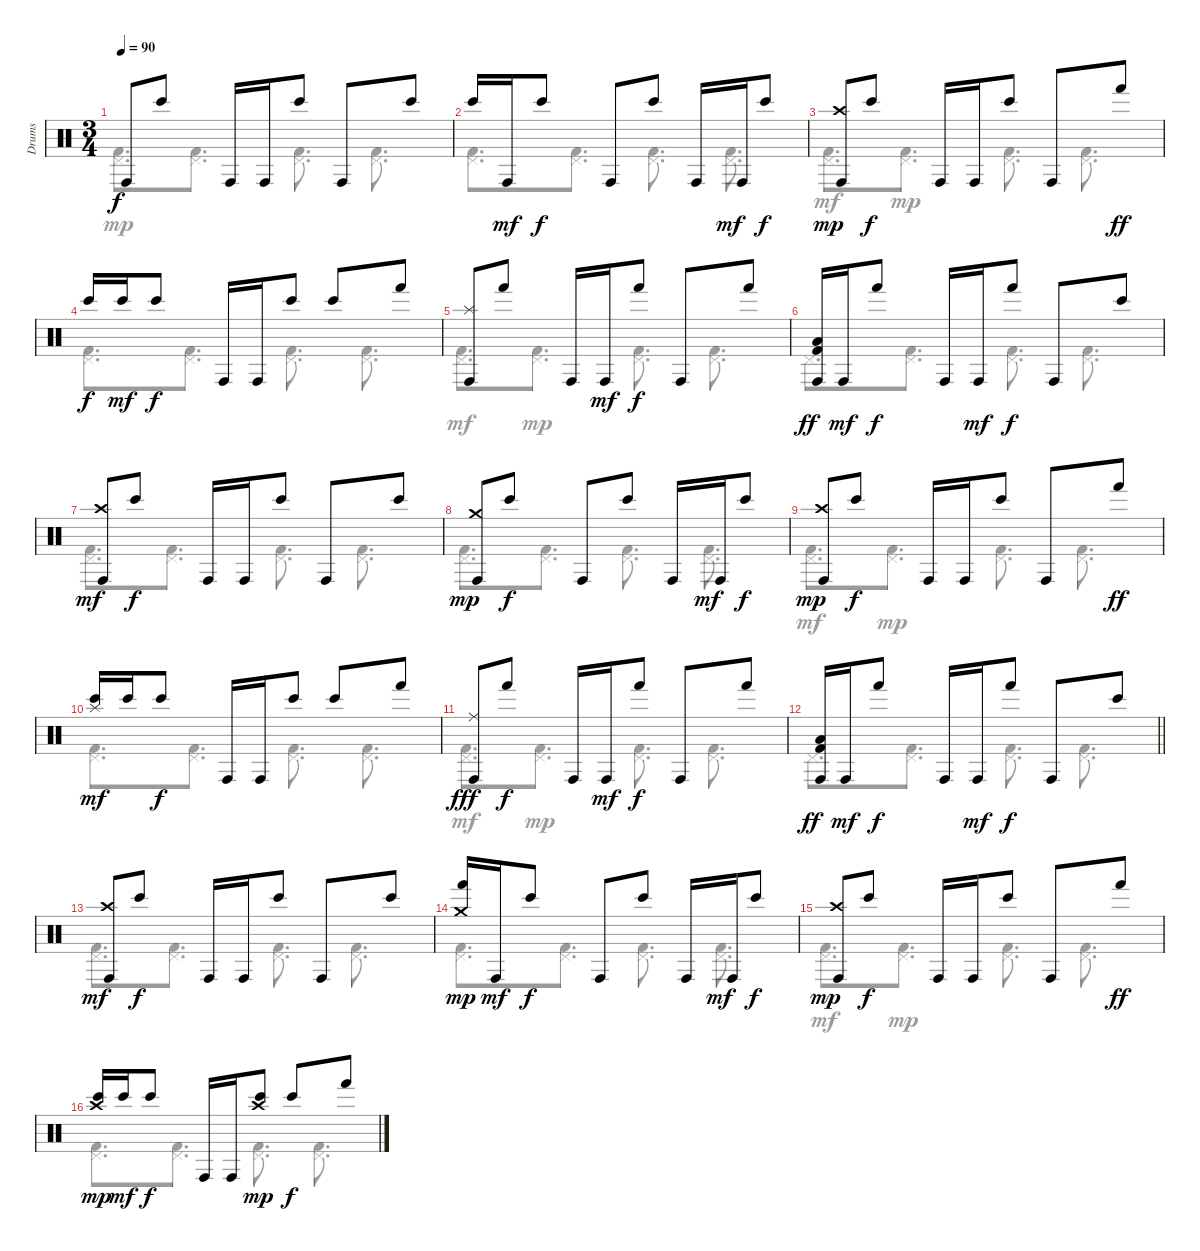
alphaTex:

\track ("Drums" "Drums") {instrument percussion}
\staff {score}
\articulation defaults
\voice
\ts (3 4)
\section ("" "")
\tempo 90
\clef neutral
\ks c "Conga high (hit)".8{dy f} "Bongo High (hit)".8 "Conga high (hit)".16 "Conga high (hit)".16 "Bongo High (hit)".8 "Conga high (hit)".8 "Bongo High (hit)".8
|
"Bongo High (hit)".16 "Conga high (hit)".16{dy mf} "Bongo High (hit)".8{dy f} "Conga high (hit)".8 "Bongo High (hit)".8 "Conga high (hit)".16 "Conga high (hit)".16{dy mf} "Bongo High (hit)".8{dy f} |
("Crash high (hit)" "Conga high (hit)").8{dy mp} "Bongo High (hit)".8{dy f} "Conga high (hit)".16 "Conga high (hit)".16 "Bongo High (hit)".8 "Conga high (hit)".8 "Hand (hit)".8{dy ff} |
"Bongo High (hit)".16{dy f} "Bongo High (hit)".16{dy mf} "Bongo High (hit)".8{dy f} "Conga high (hit)".16 "Conga high (hit)".16 "Bongo High (hit)".8 "Bongo High (hit)".8 "Hand (hit)".8 |
("Splash (hit)" "Conga high (hit)").8 "Hand (hit)".8 "Conga high (hit)".16 "Conga high (hit)".16{dy mf} "Hand (hit)".8{dy f} "Conga high (hit)".8 "Hand (hit)".8 |
("Conga high (hit)" "Low Tom (hit)" "Kick (hit) 2").16{dy ff} "Conga high (hit)".16{dy mf} "Hand (hit)".8{dy f} "Conga high (hit)".16 "Conga high (hit)".16{dy mf} "Hand (hit)".8{dy f} "Conga high (hit)".8 "Bongo High (hit)".8 |
("Crash high (hit)" "Conga high (hit)").8{dy mf} "Bongo High (hit)".8{dy f} "Conga high (hit)".16 "Conga high (hit)".16 "Bongo High (hit)".8 "Conga high (hit)".8 "Bongo High (hit)".8 |
("Crash medium (hit)" "Conga high (hit)").8{dy mp} "Bongo High (hit)".8{dy f} "Conga high (hit)".8 "Bongo High (hit)".8 "Conga high (hit)".16 "Conga high (hit)".16{dy mf} "Bongo High (hit)".8{dy f} |
("Crash high (hit)" "Conga high (hit)").8{dy mp} "Bongo High (hit)".8{dy f} "Conga high (hit)".16 "Conga high (hit)".16 "Bongo High (hit)".8 "Conga high (hit)".8 "Hand (hit)".8{dy ff} |
("Splash (hit)" "Bongo High (hit)").16{dy mf} "Bongo High (hit)".16 "Bongo High (hit)".8{dy f} "Conga high (hit)".16 "Conga high (hit)".16 "Bongo High (hit)".8 "Bongo High (hit)".8 "Hand (hit)".8 |
("Ride (middle)" "Conga high (hit)").8{dy fff} "Hand (hit)".8{dy f} "Conga high (hit)".16 "Conga high (hit)".16{dy mf} "Hand (hit)".8{dy f} "Conga high (hit)".8 "Hand (hit)".8 |
\barLineRight lightlight
("Conga high (hit)" "Low Tom (hit)" "Kick (hit) 2").16{dy ff} "Conga high (hit)".16{dy mf} "Hand (hit)".8{dy f} "Conga high (hit)".16 "Conga high (hit)".16{dy mf} "Hand (hit)".8{dy f} "Conga high (hit)".8 "Bongo High (hit)".8 |
("Crash high (hit)" "Conga high (hit)").8{dy mf} "Bongo High (hit)".8{dy f} "Conga high (hit)".16 "Conga high (hit)".16 "Bongo High (hit)".8 "Conga high (hit)".8 "Bongo High (hit)".8 |
("Crash medium (hit)" "Hand (hit)").16{dy mp} "Conga high (hit)".16{dy mf} "Bongo High (hit)".8{dy f} "Conga high (hit)".8 "Bongo High (hit)".8 "Conga high (hit)".16 "Conga high (hit)".16{dy mf} "Bongo High (hit)".8{dy f} |
("Crash high (hit)" "Conga high (hit)").8{dy mp} "Bongo High (hit)".8{dy f} "Conga high (hit)".16 "Conga high (hit)".16 "Bongo High (hit)".8 "Conga high (hit)".8 "Hand (hit)".8{dy ff} |
("Crash high (hit)" "Bongo High (hit)").16{dy mp} "Bongo High (hit)".16{dy mf} "Bongo High (hit)".8{dy f} "Conga high (hit)".16 "Conga high (hit)".16 ("Crash high (hit)" "Bongo High (hit)").8{dy mp} "Bongo High (hit)".8{dy f} "Hand (hit)".8
\voice
\clef neutral
\ottava regular
\simile none
\ks c
("Pedal Hi-Hat (hit)" "Kick (hit) 2").8{d dy mp} ("Pedal Hi-Hat (hit)" "Kick (hit) 2").8{d} ("Pedal Hi-Hat (hit)" "Kick (hit) 2").8{d} ("Pedal Hi-Hat (hit)" "Kick (hit) 2").8{d} |
("Pedal Hi-Hat (hit)" "Kick (hit) 2").8{d} ("Pedal Hi-Hat (hit)" "Kick (hit) 2").8{d} ("Pedal Hi-Hat (hit)" "Kick (hit) 2").8{d} ("Pedal Hi-Hat (hit)" "Kick (hit) 2").8{d} |
("Pedal Hi-Hat (hit)" "Kick (hit) 2").8{d dy mf} ("Pedal Hi-Hat (hit)" "Kick (hit) 2").8{d dy mp} ("Pedal Hi-Hat (hit)" "Kick (hit) 2").8{d} ("Pedal Hi-Hat (hit)" "Kick (hit) 2").8{d} |
("Pedal Hi-Hat (hit)" "Kick (hit) 2").8{d} ("Pedal Hi-Hat (hit)" "Kick (hit) 2").8{d} ("Pedal Hi-Hat (hit)" "Kick (hit) 2").8{d} ("Pedal Hi-Hat (hit)" "Kick (hit) 2").8{d} |
("Pedal Hi-Hat (hit)" "Kick (hit) 2").8{d dy mf} ("Pedal Hi-Hat (hit)" "Kick (hit) 2").8{d dy mp} ("Pedal Hi-Hat (hit)" "Kick (hit) 2").8{d} ("Pedal Hi-Hat (hit)" "Kick (hit) 2").8{d} |
"Pedal Hi-Hat (hit)".8{d} ("Pedal Hi-Hat (hit)" "Kick (hit) 2").8{d} ("Pedal Hi-Hat (hit)" "Kick (hit) 2").8{d} ("Pedal Hi-Hat (hit)" "Kick (hit) 2").8{d} |
("Pedal Hi-Hat (hit)" "Kick (hit) 2").8{d} ("Pedal Hi-Hat (hit)" "Kick (hit) 2").8{d} ("Pedal Hi-Hat (hit)" "Kick (hit) 2").8{d} ("Pedal Hi-Hat (hit)" "Kick (hit) 2").8{d} |
("Pedal Hi-Hat (hit)" "Kick (hit) 2").8{d} ("Pedal Hi-Hat (hit)" "Kick (hit) 2").8{d} ("Pedal Hi-Hat (hit)" "Kick (hit) 2").8{d} ("Pedal Hi-Hat (hit)" "Kick (hit) 2").8{d} |
("Pedal Hi-Hat (hit)" "Kick (hit) 2").8{d dy mf} ("Pedal Hi-Hat (hit)" "Kick (hit) 2").8{d dy mp} ("Pedal Hi-Hat (hit)" "Kick (hit) 2").8{d} ("Pedal Hi-Hat (hit)" "Kick (hit) 2").8{d} |
("Pedal Hi-Hat (hit)" "Kick (hit) 2").8{d} ("Pedal Hi-Hat (hit)" "Kick (hit) 2").8{d} ("Pedal Hi-Hat (hit)" "Kick (hit) 2").8{d} ("Pedal Hi-Hat (hit)" "Kick (hit) 2").8{d} |
("Pedal Hi-Hat (hit)" "Kick (hit) 2").8{d dy mf} ("Pedal Hi-Hat (hit)" "Kick (hit) 2").8{d dy mp} ("Pedal Hi-Hat (hit)" "Kick (hit) 2").8{d} ("Pedal Hi-Hat (hit)" "Kick (hit) 2").8{d} |
\barLineRight lightlight "Pedal Hi-Hat (hit)".8{d}
("Pedal Hi-Hat (hit)" "Kick (hit) 2").8{d} ("Pedal Hi-Hat (hit)" "Kick (hit) 2").8{d} ("Pedal Hi-Hat (hit)" "Kick (hit) 2").8{d} |
("Pedal Hi-Hat (hit)" "Kick (hit) 2").8{d} ("Pedal Hi-Hat (hit)" "Kick (hit) 2").8{d} ("Pedal Hi-Hat (hit)" "Kick (hit) 2").8{d} ("Pedal Hi-Hat (hit)" "Kick (hit) 2").8{d} |
("Pedal Hi-Hat (hit)" "Kick (hit) 2").8{d} ("Pedal Hi-Hat (hit)" "Kick (hit) 2").8{d} ("Pedal Hi-Hat (hit)" "Kick (hit) 2").8{d} ("Pedal Hi-Hat (hit)" "Kick (hit) 2").8{d} |
("Pedal Hi-Hat (hit)" "Kick (hit) 2").8{d dy mf} ("Pedal Hi-Hat (hit)" "Kick (hit) 2").8{d dy mp} ("Pedal Hi-Hat (hit)" "Kick (hit) 2").8{d} ("Pedal Hi-Hat (hit)" "Kick (hit) 2").8{d} |
("Pedal Hi-Hat (hit)" "Kick (hit) 2").8{d} ("Pedal Hi-Hat (hit)" "Kick (hit) 2").8{d} ("Pedal Hi-Hat (hit)" "Kick (hit) 2").8{d} ("Pedal Hi-Hat (hit)" "Kick (hit) 2").8{d}
